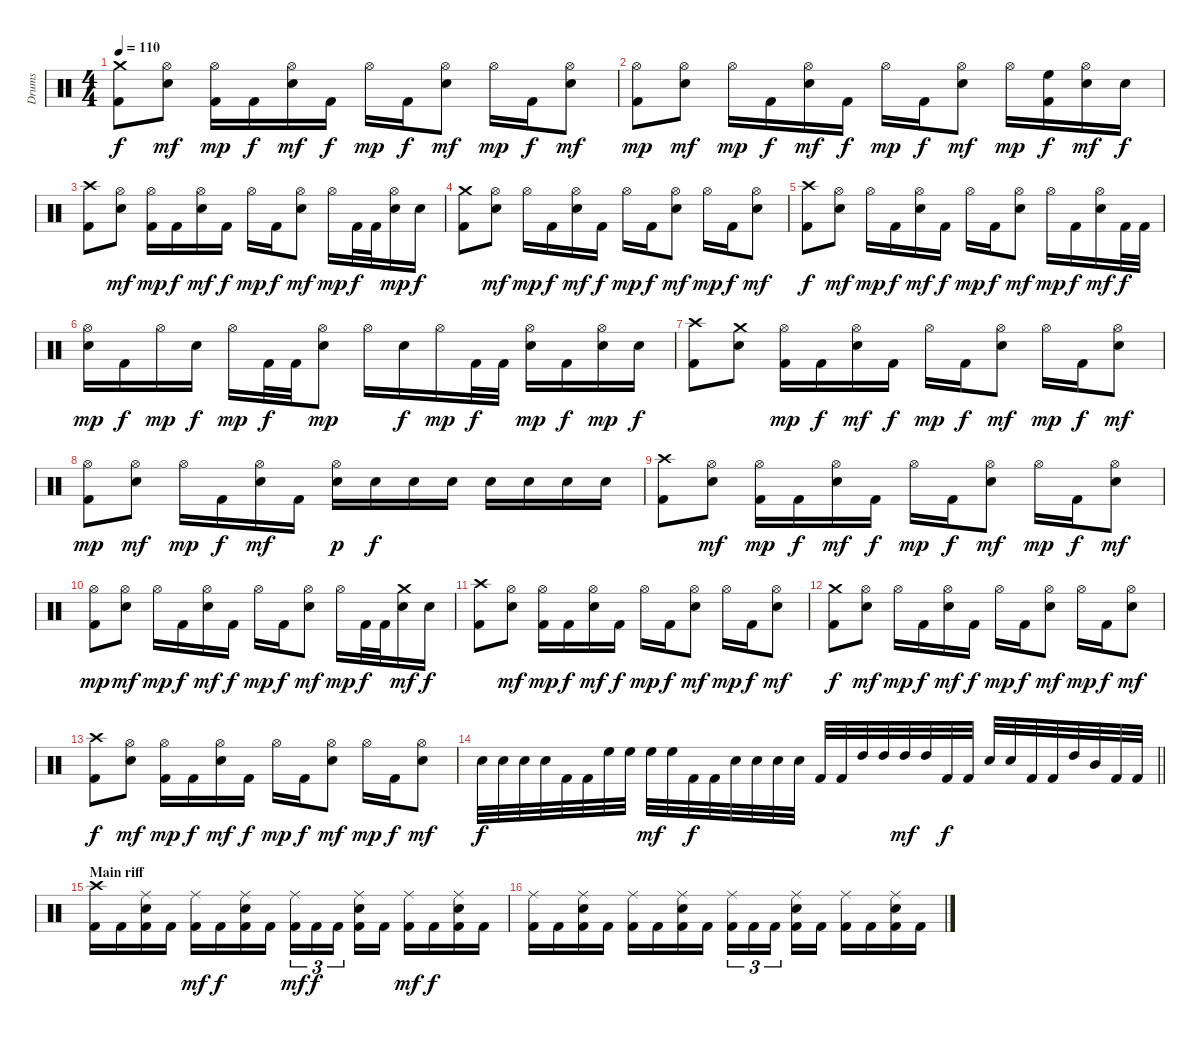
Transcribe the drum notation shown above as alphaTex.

\track ("Drums" "Drums") {instrument percussion}
\staff {score}
\articulation defaults
\ts (4 4)
\tempo 110
\clef neutral
\ks c
("Crash medium (hit)" "Kick (hit) 2").8{dy f} ("Hi-Hat (open)" "Electric Snare (hit)").8{dy mf} ("Hi-Hat (open)" "Kick (hit) 2").16{dy mp} "Kick (hit) 2".16{dy f} ("Hi-Hat (open)" "Electric Snare (hit)").16{dy mf} "Kick (hit) 2".16{dy f} "Hi-Hat (open)".16{dy mp} "Kick (hit) 2".16{dy f} ("Hi-Hat (open)" "Electric Snare (hit)").8{dy mf} "Hi-Hat (open)".16{dy mp} "Kick (hit) 2".16{dy f} ("Hi-Hat (open)" "Electric Snare (hit)").8{dy mf} |
("Hi-Hat (open)" "Kick (hit) 2").8{dy mp} ("Hi-Hat (open)" "Electric Snare (hit)").8{dy mf} "Hi-Hat (open)".16{dy mp} "Kick (hit) 2".16{dy f} ("Hi-Hat (open)" "Electric Snare (hit)").16{dy mf} "Kick (hit) 2".16{dy f} "Hi-Hat (open)".16{dy mp} "Kick (hit) 2".16{dy f} ("Hi-Hat (open)" "Electric Snare (hit)").8{dy mf} "Hi-Hat (open)".16{dy mp} ("High Floor Tom (hit)" "Kick (hit) 2").16{dy f} ("Hi-Hat (open)" "Electric Snare (hit)").16{dy mf} "Electric Snare (hit)".16{dy f} |
("Crash high (hit)" "Kick (hit) 2").8 ("Hi-Hat (open)" "Electric Snare (hit)").8{dy mf} ("Hi-Hat (open)" "Kick (hit) 2").16{dy mp} "Kick (hit) 2".16{dy f} ("Hi-Hat (open)" "Electric Snare (hit)").16{dy mf} "Kick (hit) 2".16{dy f} "Hi-Hat (open)".16{dy mp} "Kick (hit) 2".16{dy f} ("Hi-Hat (open)" "Electric Snare (hit)").8{dy mf} "Hi-Hat (open)".16{dy mp} "Kick (hit) 2".32{dy f} "Kick (hit) 2".32 ("Hi-Hat (open)" "Electric Snare (hit)").16{dy mp} "Electric Snare (hit)".16{dy f} |
("Crash medium (hit)" "Kick (hit) 2").8 ("Hi-Hat (open)" "Electric Snare (hit)").8{dy mf} "Hi-Hat (open)".16{dy mp} "Kick (hit) 2".16{dy f} ("Hi-Hat (open)" "Electric Snare (hit)").16{dy mf} "Kick (hit) 2".16{dy f} "Hi-Hat (open)".16{dy mp} "Kick (hit) 2".16{dy f} ("Hi-Hat (open)" "Electric Snare (hit)").8{dy mf} "Hi-Hat (open)".16{dy mp} "Kick (hit) 2".16{dy f} ("Hi-Hat (open)" "Electric Snare (hit)").8{dy mf} |
("Crash high (hit)" "Kick (hit) 2").8{dy f} ("Hi-Hat (open)" "Electric Snare (hit)").8{dy mf} "Hi-Hat (open)".16{dy mp} "Kick (hit) 2".16{dy f} ("Hi-Hat (open)" "Electric Snare (hit)").16{dy mf} "Kick (hit) 2".16{dy f} "Hi-Hat (open)".16{dy mp} "Kick (hit) 2".16{dy f} ("Hi-Hat (open)" "Electric Snare (hit)").8{dy mf} "Hi-Hat (open)".16{dy mp} "Kick (hit) 2".16{dy f} ("Hi-Hat (open)" "Electric Snare (hit)").16{dy mf} "Kick (hit) 2".32{dy f} "Kick (hit) 2".32 |
("Hi-Hat (open)" "Electric Snare (hit)").16{dy mp} "Kick (hit) 2".16{dy f} "Hi-Hat (open)".16{dy mp} "Electric Snare (hit)".16{dy f} "Hi-Hat (open)".16{dy mp} "Kick (hit) 2".32{dy f} "Kick (hit) 2".32 ("Hi-Hat (open)" "Electric Snare (hit)").8{dy mp} "Hi-Hat (open)".16 "Electric Snare (hit)".16{dy f} "Hi-Hat (open)".16{dy mp} "Kick (hit) 2".32{dy f} "Kick (hit) 2".32 ("Hi-Hat (open)" "Electric Snare (hit)").16{dy mp} "Kick (hit) 2".16{dy f} ("Hi-Hat (open)" "Electric Snare (hit)").16{dy mp} "Electric Snare (hit)".16{dy f} |
("Crash high (hit)" "Kick (hit) 2").8 ("Crash medium (hit)" "Electric Snare (hit)").8 ("Hi-Hat (open)" "Kick (hit) 2").16{dy mp} "Kick (hit) 2".16{dy f} ("Hi-Hat (open)" "Electric Snare (hit)").16{dy mf} "Kick (hit) 2".16{dy f} "Hi-Hat (open)".16{dy mp} "Kick (hit) 2".16{dy f} ("Hi-Hat (open)" "Electric Snare (hit)").8{dy mf} "Hi-Hat (open)".16{dy mp} "Kick (hit) 2".16{dy f} ("Hi-Hat (open)" "Electric Snare (hit)").8{dy mf} |
("Hi-Hat (open)" "Kick (hit) 2").8{dy mp} ("Hi-Hat (open)" "Electric Snare (hit)").8{dy mf} "Hi-Hat (open)".16{dy mp} "Kick (hit) 2".16{dy f} ("Hi-Hat (open)" "Electric Snare (hit)").16{dy mf} "Kick (hit) 2".16 ("Hi-Hat (open)" "Electric Snare (hit)").16{dy p} "Electric Snare (hit)".16{dy f} "Electric Snare (hit)".16 "Electric Snare (hit)".16 "Electric Snare (hit)".16 "Electric Snare (hit)".16 "Electric Snare (hit)".16 "Electric Snare (hit)".16 |
("Crash high (hit)" "Kick (hit) 2").8 ("Hi-Hat (open)" "Electric Snare (hit)").8{dy mf} ("Hi-Hat (open)" "Kick (hit) 2").16{dy mp} "Kick (hit) 2".16{dy f} ("Hi-Hat (open)" "Electric Snare (hit)").16{dy mf} "Kick (hit) 2".16{dy f} "Hi-Hat (open)".16{dy mp} "Kick (hit) 2".16{dy f} ("Hi-Hat (open)" "Electric Snare (hit)").8{dy mf} "Hi-Hat (open)".16{dy mp} "Kick (hit) 2".16{dy f} ("Hi-Hat (open)" "Electric Snare (hit)").8{dy mf} |
("Hi-Hat (open)" "Kick (hit) 2").8{dy mp} ("Hi-Hat (open)" "Electric Snare (hit)").8{dy mf} "Hi-Hat (open)".16{dy mp} "Kick (hit) 2".16{dy f} ("Hi-Hat (open)" "Electric Snare (hit)").16{dy mf} "Kick (hit) 2".16{dy f} "Hi-Hat (open)".16{dy mp} "Kick (hit) 2".16{dy f} ("Hi-Hat (open)" "Electric Snare (hit)").8{dy mf} "Hi-Hat (open)".16{dy mp} "Kick (hit) 2".32{dy f} "Kick (hit) 2".32 ("Crash medium (hit)" "Electric Snare (hit)").16{dy mf} "Electric Snare (hit)".16{dy f} |
("Crash high (hit)" "Kick (hit) 2").8 ("Hi-Hat (open)" "Electric Snare (hit)").8{dy mf} ("Hi-Hat (open)" "Kick (hit) 2").16{dy mp} "Kick (hit) 2".16{dy f} ("Hi-Hat (open)" "Electric Snare (hit)").16{dy mf} "Kick (hit) 2".16{dy f} "Hi-Hat (open)".16{dy mp} "Kick (hit) 2".16{dy f} ("Hi-Hat (open)" "Electric Snare (hit)").8{dy mf} "Hi-Hat (open)".16{dy mp} "Kick (hit) 2".16{dy f} ("Hi-Hat (open)" "Electric Snare (hit)").8{dy mf} |
("Crash medium (hit)" "Kick (hit) 2").8{dy f} ("Hi-Hat (open)" "Electric Snare (hit)").8{dy mf} "Hi-Hat (open)".16{dy mp} "Kick (hit) 2".16{dy f} ("Hi-Hat (open)" "Electric Snare (hit)").16{dy mf} "Kick (hit) 2".16{dy f} "Hi-Hat (open)".16{dy mp} "Kick (hit) 2".16{dy f} ("Hi-Hat (open)" "Electric Snare (hit)").8{dy mf} "Hi-Hat (open)".16{dy mp} "Kick (hit) 2".16{dy f} ("Hi-Hat (open)" "Electric Snare (hit)").8{dy mf} |
("Crash high (hit)" "Kick (hit) 2").8{dy f} ("Hi-Hat (open)" "Electric Snare (hit)").8{dy mf} ("Hi-Hat (open)" "Kick (hit) 2").16{dy mp} "Kick (hit) 2".16{dy f} ("Hi-Hat (open)" "Electric Snare (hit)").16{dy mf} "Kick (hit) 2".16{dy f} "Hi-Hat (open)".16{dy mp} "Kick (hit) 2".16{dy f} ("Hi-Hat (open)" "Electric Snare (hit)").8{dy mf} "Hi-Hat (open)".16{dy mp} "Kick (hit) 2".16{dy f} ("Hi-Hat (open)" "Electric Snare (hit)").8{dy mf} |
\barLineRight lightlight "Electric Snare (hit)".32{dy f} "Electric Snare (hit)".32 "Electric Snare (hit)".32 "Electric Snare (hit)".32 "Kick (hit) 2".32 "Kick (hit) 2".32 "High Floor Tom (hit)".32 "High Floor Tom (hit)".32 "High Floor Tom (hit)".32{dy mf} "High Floor Tom (hit)".32 "Kick (hit) 2".32{dy f} "Kick (hit) 2".32 "Electric Snare (hit)".32 "Electric Snare (hit)".32 "Electric Snare (hit)".32 "Electric Snare (hit)".32 "Kick (hit) 2".32 "Kick (hit) 2".32 "High Tom (hit)".32 "High Tom (hit)".32 "High Tom (hit)".32{dy mf} "High Tom (hit)".32 "Kick (hit) 2".32{dy f} "Kick (hit) 2".32 "Electric Snare (hit)".32 "Electric Snare (hit)".32 "Kick (hit) 2".32 "Kick (hit) 2".32 "High Tom (hit)".32 "Mid Tom (hit)".32 "Kick (hit) 2".32 "Kick (hit) 2".32
|
\section ("" "Main riff")
("Crash high (hit)" "Kick (hit) 2").16 "Kick (hit) 2".16 ("Ride (middle)" "Electric Snare (hit)" "Kick (hit) 2").16 "Kick (hit) 2".16 ("Ride (middle)" "Kick (hit) 2").16{dy mf} "Kick (hit) 2".16{dy f} ("Ride (middle)" "Electric Snare (hit)" "Kick (hit) 2").16 "Kick (hit) 2".16 ("Ride (middle)" "Kick (hit) 2").16{tu (3 2) dy mf} "Kick (hit) 2".16{tu (3 2) dy f} "Kick (hit) 2".16{tu (3 2)} ("Ride (middle)" "Electric Snare (hit)" "Kick (hit) 2").16 "Kick (hit) 2".16 ("Ride (middle)" "Kick (hit) 2").16{dy mf} "Kick (hit) 2".16{dy f} ("Ride (middle)" "Electric Snare (hit)" "Kick (hit) 2").16 "Kick (hit) 2".16 |
("Ride (middle)" "Kick (hit) 2").16 "Kick (hit) 2".16 ("Ride (middle)" "Electric Snare (hit)" "Kick (hit) 2").16 "Kick (hit) 2".16 ("Ride (middle)" "Kick (hit) 2").16 "Kick (hit) 2".16 ("Ride (middle)" "Electric Snare (hit)" "Kick (hit) 2").16 "Kick (hit) 2".16 ("Ride (middle)" "Kick (hit) 2").16{tu (3 2)} "Kick (hit) 2".16{tu (3 2)} "Kick (hit) 2".16{tu (3 2)} ("Ride (middle)" "Electric Snare (hit)" "Kick (hit) 2").16 "Kick (hit) 2".16 ("Ride (middle)" "Kick (hit) 2").16 "Kick (hit) 2".16 ("Ride (middle)" "Electric Snare (hit)" "Kick (hit) 2").16 "Kick (hit) 2".16
